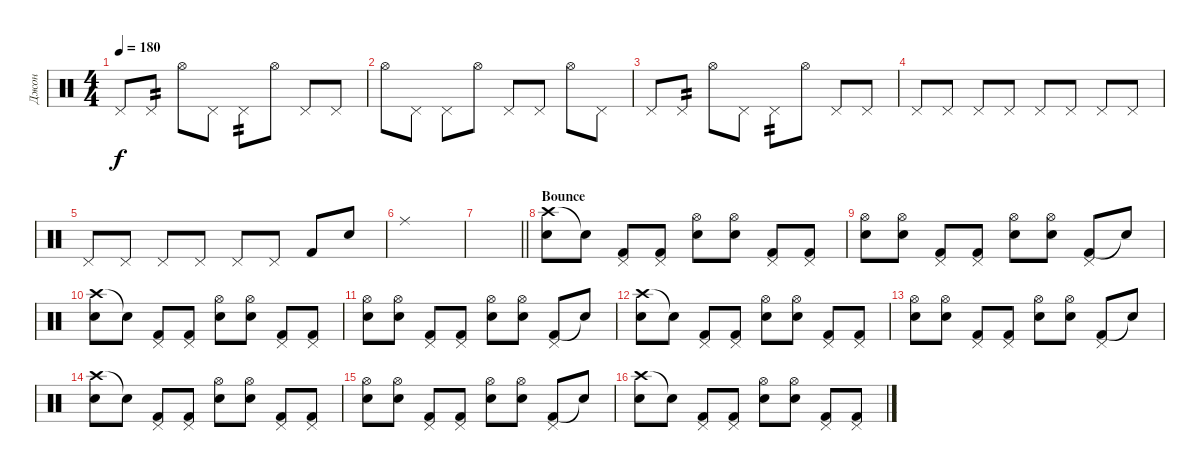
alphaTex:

\track ("Джон" "Джон") {instrument percussion}
\staff {score}
\articulation defaults
\ts (4 4)
\tempo 180
\clef neutral
\ks c "Pedal Hi-Hat (hit)".8{dy f} "Pedal Hi-Hat (hit)".8{tp 2} "Hi-Hat (open)".8 "Pedal Hi-Hat (hit)".8 "Pedal Hi-Hat (hit)".8{tp 2} "Hi-Hat (open)".8 "Pedal Hi-Hat (hit)".8 "Pedal Hi-Hat (hit)".8
|
"Hi-Hat (open)".8 "Pedal Hi-Hat (hit)".8 "Pedal Hi-Hat (hit)".8 "Hi-Hat (open)".8 "Pedal Hi-Hat (hit)".8 "Pedal Hi-Hat (hit)".8 "Hi-Hat (open)".8 "Pedal Hi-Hat (hit)".8 |
"Pedal Hi-Hat (hit)".8 "Pedal Hi-Hat (hit)".8{tp 2} "Hi-Hat (open)".8 "Pedal Hi-Hat (hit)".8 "Pedal Hi-Hat (hit)".8{tp 2} "Hi-Hat (open)".8 "Pedal Hi-Hat (hit)".8 "Pedal Hi-Hat (hit)".8 |
"Pedal Hi-Hat (hit)".8 "Pedal Hi-Hat (hit)".8 "Pedal Hi-Hat (hit)".8 "Pedal Hi-Hat (hit)".8 "Pedal Hi-Hat (hit)".8 "Pedal Hi-Hat (hit)".8 "Pedal Hi-Hat (hit)".8 "Pedal Hi-Hat (hit)".8 |
"Pedal Hi-Hat (hit)".8 "Pedal Hi-Hat (hit)".8 "Pedal Hi-Hat (hit)".8 "Pedal Hi-Hat (hit)".8 "Pedal Hi-Hat (hit)".8 "Pedal Hi-Hat (hit)".8 "Kick (hit) 2".8 "Electric Snare (hit)".8 |
"Ride (middle)".1 |
\barLineRight lightlight
|
\section ("" "Bounce")
("Crash high (hit)" "Electric Snare (hit)").8 "Snare (hit)"{t}.8 ("Kick (hit) 2" "Pedal Hi-Hat (hit)").8 ("Kick (hit) 2" "Pedal Hi-Hat (hit)").8 ("Snare (hit) 2" "Hi-Hat (open)").8 ("Snare (hit) 2" "Hi-Hat (open)").8 ("Kick (hit) 2" "Pedal Hi-Hat (hit)").8 ("Kick (hit) 2" "Pedal Hi-Hat (hit)").8 |
("Snare (hit) 2" "Hi-Hat (open)").8 ("Snare (hit) 2" "Hi-Hat (open)").8 ("Kick (hit) 2" "Pedal Hi-Hat (hit)").8 ("Kick (hit) 2" "Pedal Hi-Hat (hit)").8 ("Snare (hit) 2" "Hi-Hat (open)").8 ("Snare (hit) 2" "Hi-Hat (open)").8 ("Kick (hit) 2" "Pedal Hi-Hat (hit)").8 "Snare (hit)"{t}.8 |
("Crash high (hit)" "Electric Snare (hit)").8 "Snare (hit)"{t}.8 ("Kick (hit) 2" "Pedal Hi-Hat (hit)").8 ("Kick (hit) 2" "Pedal Hi-Hat (hit)").8 ("Snare (hit) 2" "Hi-Hat (open)").8 ("Snare (hit) 2" "Hi-Hat (open)").8 ("Kick (hit) 2" "Pedal Hi-Hat (hit)").8 ("Kick (hit) 2" "Pedal Hi-Hat (hit)").8 |
("Snare (hit) 2" "Hi-Hat (open)").8 ("Snare (hit) 2" "Hi-Hat (open)").8 ("Kick (hit) 2" "Pedal Hi-Hat (hit)").8 ("Kick (hit) 2" "Pedal Hi-Hat (hit)").8 ("Snare (hit) 2" "Hi-Hat (open)").8 ("Snare (hit) 2" "Hi-Hat (open)").8 ("Kick (hit) 2" "Pedal Hi-Hat (hit)").8 "Snare (hit)"{t}.8 |
("Crash high (hit)" "Electric Snare (hit)").8 "Snare (hit)"{t}.8 ("Kick (hit) 2" "Pedal Hi-Hat (hit)").8 ("Kick (hit) 2" "Pedal Hi-Hat (hit)").8 ("Snare (hit) 2" "Hi-Hat (open)").8 ("Snare (hit) 2" "Hi-Hat (open)").8 ("Kick (hit) 2" "Pedal Hi-Hat (hit)").8 ("Kick (hit) 2" "Pedal Hi-Hat (hit)").8 |
("Snare (hit) 2" "Hi-Hat (open)").8 ("Snare (hit) 2" "Hi-Hat (open)").8 ("Kick (hit) 2" "Pedal Hi-Hat (hit)").8 ("Kick (hit) 2" "Pedal Hi-Hat (hit)").8 ("Snare (hit) 2" "Hi-Hat (open)").8 ("Snare (hit) 2" "Hi-Hat (open)").8 ("Kick (hit) 2" "Pedal Hi-Hat (hit)").8 "Snare (hit)"{t}.8 |
("Crash high (hit)" "Electric Snare (hit)").8 "Snare (hit)"{t}.8 ("Kick (hit) 2" "Pedal Hi-Hat (hit)").8 ("Kick (hit) 2" "Pedal Hi-Hat (hit)").8 ("Snare (hit) 2" "Hi-Hat (open)").8 ("Snare (hit) 2" "Hi-Hat (open)").8 ("Kick (hit) 2" "Pedal Hi-Hat (hit)").8 ("Kick (hit) 2" "Pedal Hi-Hat (hit)").8 |
("Snare (hit) 2" "Hi-Hat (open)").8 ("Snare (hit) 2" "Hi-Hat (open)").8 ("Kick (hit) 2" "Pedal Hi-Hat (hit)").8 ("Kick (hit) 2" "Pedal Hi-Hat (hit)").8 ("Snare (hit) 2" "Hi-Hat (open)").8 ("Snare (hit) 2" "Hi-Hat (open)").8 ("Kick (hit) 2" "Pedal Hi-Hat (hit)").8 "Snare (hit)"{t}.8 |
("Crash high (hit)" "Electric Snare (hit)").8 "Snare (hit)"{t}.8 ("Kick (hit) 2" "Pedal Hi-Hat (hit)").8 ("Kick (hit) 2" "Pedal Hi-Hat (hit)").8 ("Snare (hit) 2" "Hi-Hat (open)").8 ("Snare (hit) 2" "Hi-Hat (open)").8 ("Kick (hit) 2" "Pedal Hi-Hat (hit)").8 ("Kick (hit) 2" "Pedal Hi-Hat (hit)").8
